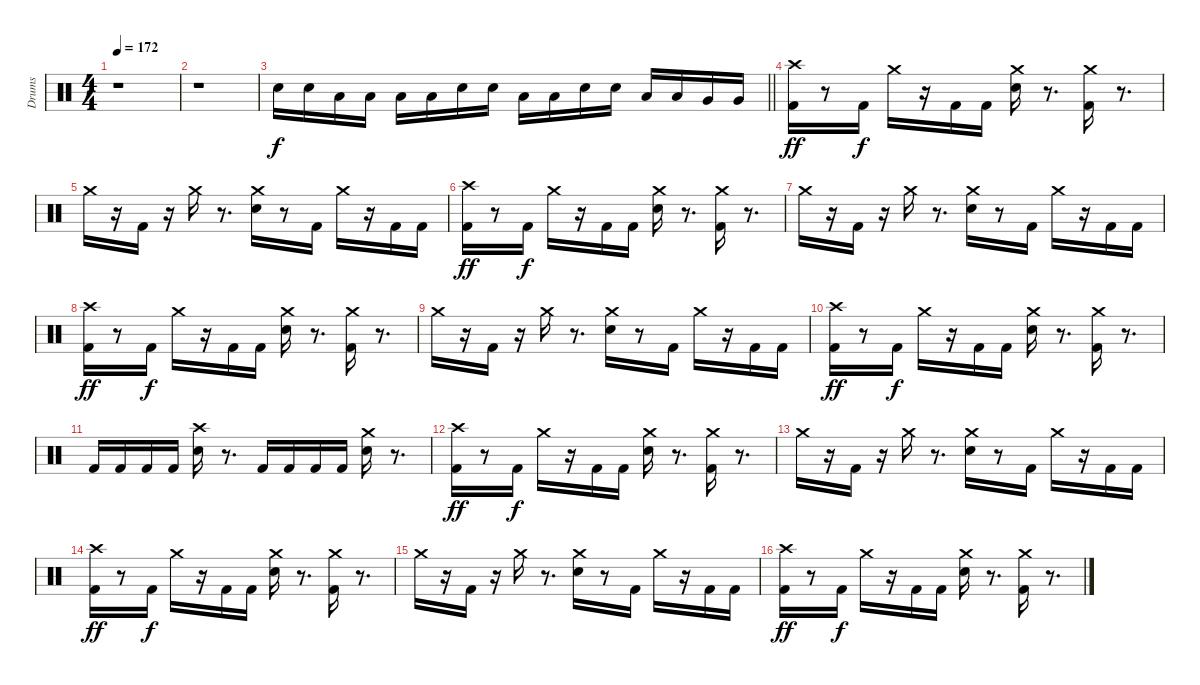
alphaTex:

\track ("Drums" "Drums") {instrument percussion}
\staff {score}
\articulation defaults
\ts (4 4)
\tempo 172
\clef neutral
\ks c
r.1{dy f} |
r.1 |
\barLineRight lightlight "Snare (hit) 2".16 "Snare (hit) 2".16 "Low Tom (hit)".16 "Low Tom (hit)".16 "Low Tom (hit)".16 "Low Tom (hit)".16 "Snare (hit) 2".16 "Snare (hit) 2".16 "Low Tom (hit)".16 "Low Tom (hit)".16 "Snare (hit) 2".16 "Snare (hit) 2".16 "Low Tom (hit)".16 "Low Tom (hit)".16 "Very Low Tom (hit)".16 "Very Low Tom (hit)".16
|
\section ("" " ")
("Kick (hit) 2" "Crash high (hit)").16{dy ff} r.8 "Kick (hit) 2".16{dy f} "Crash medium (hit)".16 r.16 "Kick (hit) 2".16 "Kick (hit) 2".16 ("Snare (hit) 2" "Crash medium (hit)").16 r.8{d} ("Kick (hit) 2" "Crash medium (hit)").16 r.8{d} |
"Crash medium (hit)".16 r.16 "Kick (hit) 2".16 r.16 "Crash medium (hit)".16 r.8{d} ("Snare (hit) 2" "Crash medium (hit)").16 r.8 "Kick (hit) 2".16 "Crash medium (hit)".16 r.16 "Kick (hit) 2".16 "Kick (hit) 2".16 |
("Kick (hit) 2" "Crash high (hit)").16{dy ff} r.8 "Kick (hit) 2".16{dy f} "Crash medium (hit)".16 r.16 "Kick (hit) 2".16 "Kick (hit) 2".16 ("Snare (hit) 2" "Crash medium (hit)").16 r.8{d} ("Kick (hit) 2" "Crash medium (hit)").16 r.8{d} |
"Crash medium (hit)".16 r.16 "Kick (hit) 2".16 r.16 "Crash medium (hit)".16 r.8{d} ("Snare (hit) 2" "Crash medium (hit)").16 r.8 "Kick (hit) 2".16 "Crash medium (hit)".16 r.16 "Kick (hit) 2".16 "Kick (hit) 2".16 |
("Kick (hit) 2" "Crash high (hit)").16{dy ff} r.8 "Kick (hit) 2".16{dy f} "Crash medium (hit)".16 r.16 "Kick (hit) 2".16 "Kick (hit) 2".16 ("Snare (hit) 2" "Crash medium (hit)").16 r.8{d} ("Kick (hit) 2" "Crash medium (hit)").16 r.8{d} |
"Crash medium (hit)".16 r.16 "Kick (hit) 2".16 r.16 "Crash medium (hit)".16 r.8{d} ("Snare (hit) 2" "Crash medium (hit)").16 r.8 "Kick (hit) 2".16 "Crash medium (hit)".16 r.16 "Kick (hit) 2".16 "Kick (hit) 2".16 |
("Kick (hit) 2" "Crash high (hit)").16{dy ff} r.8 "Kick (hit) 2".16{dy f} "Crash medium (hit)".16 r.16 "Kick (hit) 2".16 "Kick (hit) 2".16 ("Snare (hit) 2" "Crash medium (hit)").16 r.8{d} ("Kick (hit) 2" "Crash medium (hit)").16 r.8{d} |
"Kick (hit) 2".16 "Kick (hit) 2".16 "Kick (hit) 2".16 "Kick (hit) 2".16 ("Snare (hit) 2" "Crash high (hit)").16 r.8{d} "Kick (hit) 2".16 "Kick (hit) 2".16 "Kick (hit) 2".16 "Kick (hit) 2".16 ("Snare (hit) 2" "Crash medium (hit)").16 r.8{d} |
("Kick (hit) 2" "Crash high (hit)").16{dy ff} r.8 "Kick (hit) 2".16{dy f} "Crash medium (hit)".16 r.16 "Kick (hit) 2".16 "Kick (hit) 2".16 ("Snare (hit) 2" "Crash medium (hit)").16 r.8{d} ("Kick (hit) 2" "Crash medium (hit)").16 r.8{d} |
"Crash medium (hit)".16 r.16 "Kick (hit) 2".16 r.16 "Crash medium (hit)".16 r.8{d} ("Snare (hit) 2" "Crash medium (hit)").16 r.8 "Kick (hit) 2".16 "Crash medium (hit)".16 r.16 "Kick (hit) 2".16 "Kick (hit) 2".16 |
("Kick (hit) 2" "Crash high (hit)").16{dy ff} r.8 "Kick (hit) 2".16{dy f} "Crash medium (hit)".16 r.16 "Kick (hit) 2".16 "Kick (hit) 2".16 ("Snare (hit) 2" "Crash medium (hit)").16 r.8{d} ("Kick (hit) 2" "Crash medium (hit)").16 r.8{d} |
"Crash medium (hit)".16 r.16 "Kick (hit) 2".16 r.16 "Crash medium (hit)".16 r.8{d} ("Snare (hit) 2" "Crash medium (hit)").16 r.8 "Kick (hit) 2".16 "Crash medium (hit)".16 r.16 "Kick (hit) 2".16 "Kick (hit) 2".16 |
("Kick (hit) 2" "Crash high (hit)").16{dy ff} r.8 "Kick (hit) 2".16{dy f} "Crash medium (hit)".16 r.16 "Kick (hit) 2".16 "Kick (hit) 2".16 ("Snare (hit) 2" "Crash medium (hit)").16 r.8{d} ("Kick (hit) 2" "Crash medium (hit)").16 r.8{d}
